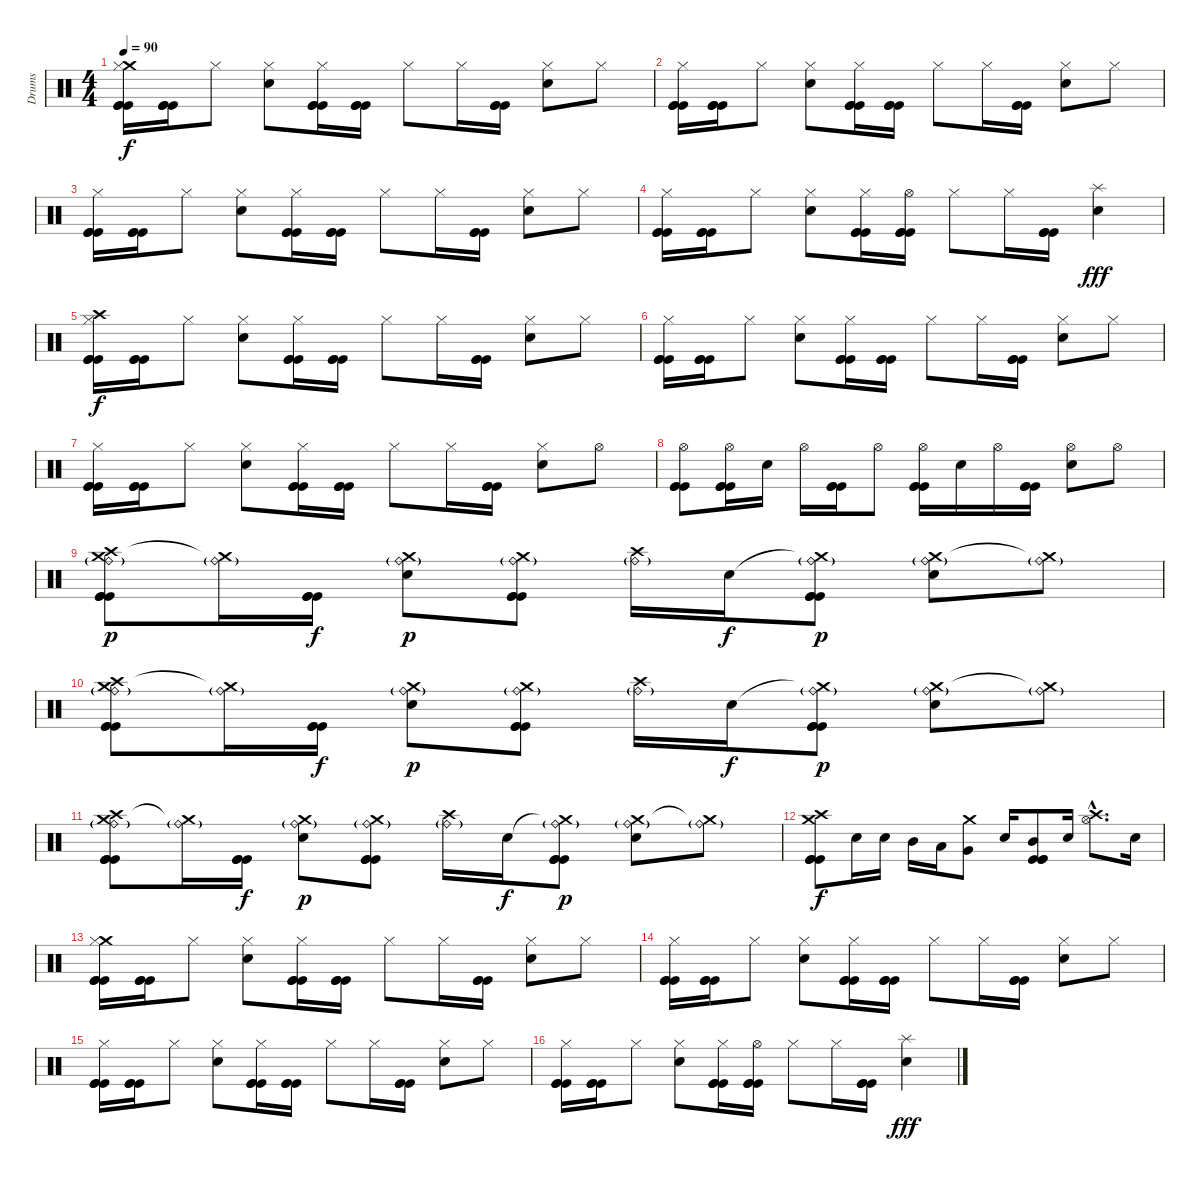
\track ("Drums" "Drums") {instrument percussion}
\staff {score}
\articulation defaults
\ts (4 4)
\tempo 90
\clef neutral
\ks c
("Crash medium (hit)" "Hi-Hat (closed)" "Kick (hit)" "Kick (hit)" "Kick (hit)").16{dy f} ("Kick (hit)" "Kick (hit)" "Kick (hit)").16 "Hi-Hat (closed)".8 ("Hi-Hat (closed)" "Electric Snare (hit)").8 ("Hi-Hat (closed)" "Kick (hit)" "Kick (hit)" "Kick (hit)").16 ("Kick (hit)" "Kick (hit)" "Kick (hit)").16 "Hi-Hat (closed)".8 "Hi-Hat (closed)".16 ("Kick (hit)" "Kick (hit)" "Kick (hit)").16 ("Hi-Hat (closed)" "Electric Snare (hit)").8 "Hi-Hat (closed)".8 |
("Hi-Hat (closed)" "Kick (hit)" "Kick (hit)" "Kick (hit)").16 ("Kick (hit)" "Kick (hit)" "Kick (hit)").16 "Hi-Hat (closed)".8 ("Hi-Hat (closed)" "Electric Snare (hit)").8 ("Hi-Hat (closed)" "Kick (hit)" "Kick (hit)" "Kick (hit)").16 ("Kick (hit)" "Kick (hit)" "Kick (hit)").16 "Hi-Hat (closed)".8 "Hi-Hat (closed)".16 ("Kick (hit)" "Kick (hit)" "Kick (hit)").16 ("Hi-Hat (closed)" "Electric Snare (hit)").8 "Hi-Hat (closed)".8 |
("Hi-Hat (closed)" "Kick (hit)" "Kick (hit)" "Kick (hit)").16 ("Kick (hit)" "Kick (hit)" "Kick (hit)").16 "Hi-Hat (closed)".8 ("Hi-Hat (closed)" "Electric Snare (hit)").8 ("Hi-Hat (closed)" "Kick (hit)" "Kick (hit)" "Kick (hit)").16 ("Kick (hit)" "Kick (hit)" "Kick (hit)").16 "Hi-Hat (closed)".8 "Hi-Hat (closed)".16 ("Kick (hit)" "Kick (hit)" "Kick (hit)").16 ("Hi-Hat (closed)" "Electric Snare (hit)").8 "Hi-Hat (closed)".8 |
("Hi-Hat (closed)" "Kick (hit)" "Kick (hit)" "Kick (hit)").16 ("Kick (hit)" "Kick (hit)" "Kick (hit)").16 "Hi-Hat (closed)".8 ("Hi-Hat (closed)" "Electric Snare (hit)").8 ("Hi-Hat (closed)" "Kick (hit)" "Kick (hit)" "Kick (hit)").16 ("Hi-Hat (open)" "Kick (hit)" "Kick (hit)" "Kick (hit)").16 "Hi-Hat (closed)".8 "Hi-Hat (closed)".16 ("Kick (hit)" "Kick (hit)" "Kick (hit)").16 ("Splash (hit)" "Electric Snare (hit)").4{dy fff} |
("Crash high (hit)" "Hi-Hat (closed)" "Kick (hit)" "Kick (hit)" "Kick (hit)").16{dy f} ("Kick (hit)" "Kick (hit)" "Kick (hit)").16 "Hi-Hat (closed)".8 ("Hi-Hat (closed)" "Electric Snare (hit)").8 ("Hi-Hat (closed)" "Kick (hit)" "Kick (hit)" "Kick (hit)").16 ("Kick (hit)" "Kick (hit)" "Kick (hit)").16 "Hi-Hat (closed)".8 "Hi-Hat (closed)".16 ("Kick (hit)" "Kick (hit)" "Kick (hit)").16 ("Hi-Hat (closed)" "Electric Snare (hit)").8 "Hi-Hat (closed)".8 |
("Hi-Hat (closed)" "Kick (hit)" "Kick (hit)" "Kick (hit)").16 ("Kick (hit)" "Kick (hit)" "Kick (hit)").16 "Hi-Hat (closed)".8 ("Hi-Hat (closed)" "Electric Snare (hit)").8 ("Hi-Hat (closed)" "Kick (hit)" "Kick (hit)" "Kick (hit)").16 ("Kick (hit)" "Kick (hit)" "Kick (hit)").16 "Hi-Hat (closed)".8 "Hi-Hat (closed)".16 ("Kick (hit)" "Kick (hit)" "Kick (hit)").16 ("Hi-Hat (closed)" "Electric Snare (hit)").8 "Hi-Hat (closed)".8 |
("Hi-Hat (closed)" "Kick (hit)" "Kick (hit)" "Kick (hit)").16 ("Kick (hit)" "Kick (hit)" "Kick (hit)").16 "Hi-Hat (closed)".8 ("Hi-Hat (closed)" "Electric Snare (hit)").8 ("Hi-Hat (closed)" "Kick (hit)" "Kick (hit)" "Kick (hit)").16 ("Kick (hit)" "Kick (hit)" "Kick (hit)").16 "Hi-Hat (closed)".8 "Hi-Hat (closed)".16 ("Kick (hit)" "Kick (hit)" "Kick (hit)").16 ("Hi-Hat (closed)" "Electric Snare (hit)").8 "Hi-Hat (open)".8 |
("Hi-Hat (open)" "Kick (hit)" "Kick (hit)" "Kick (hit)").8 ("Hi-Hat (open)" "Kick (hit)" "Kick (hit)" "Kick (hit)").16 "Electric Snare (hit)".16 "Hi-Hat (open)".16 ("Kick (hit)" "Kick (hit)" "Kick (hit)").16 "Hi-Hat (open)".8 ("Hi-Hat (open)" "Kick (hit)" "Kick (hit)" "Kick (hit)").16 "Electric Snare (hit)".16 "Hi-Hat (open)".16 ("Kick (hit)" "Kick (hit)" "Kick (hit)").16 ("Hi-Hat (open)" "Electric Snare (hit)").8 "Hi-Hat (open)".8 |
("Crash high (hit)" "Crash medium (hit)" "Ride (bell)"{g} "Kick (hit)" "Kick (hit)" "Kick (hit)").8{dy p} ("Crash medium (hit)"{t} "Ride (bell)"{g}).16 ("Kick (hit)" "Kick (hit)" "Kick (hit)").16{dy f} ("Crash medium (hit)" "Ride (bell)"{g} "Electric Snare (hit)").8{dy p} ("Crash medium (hit)" "Ride (bell)"{g} "Kick (hit)" "Kick (hit)" "Kick (hit)").8 ("Crash high (hit)" "Ride (bell)"{g}).16 "Electric Snare (hit)".16{dy f} ("Crash medium (hit)"{t} "Ride (bell)"{g} "Kick (hit)" "Kick (hit)" "Kick (hit)").8{dy p} ("Crash medium (hit)" "Ride (bell)"{g} "Electric Snare (hit)").8 ("Crash medium (hit)"{t} "Ride (bell)"{g}).8 |
("Crash high (hit)" "Crash medium (hit)" "Ride (bell)"{g} "Kick (hit)" "Kick (hit)" "Kick (hit)").8 ("Crash medium (hit)"{t} "Ride (bell)"{g}).16 ("Kick (hit)" "Kick (hit)" "Kick (hit)").16{dy f} ("Crash medium (hit)" "Ride (bell)"{g} "Electric Snare (hit)").8{dy p} ("Crash medium (hit)" "Ride (bell)"{g} "Kick (hit)" "Kick (hit)" "Kick (hit)").8 ("Crash high (hit)" "Ride (bell)"{g}).16 "Electric Snare (hit)".16{dy f} ("Crash medium (hit)"{t} "Ride (bell)"{g} "Kick (hit)" "Kick (hit)" "Kick (hit)").8{dy p} ("Crash medium (hit)" "Ride (bell)"{g} "Electric Snare (hit)").8 ("Crash medium (hit)"{t} "Ride (bell)"{g}).8 |
("Crash high (hit)" "Crash medium (hit)" "Ride (bell)"{g} "Kick (hit)" "Kick (hit)" "Kick (hit)").8 ("Crash medium (hit)"{t} "Ride (bell)"{g}).16 ("Kick (hit)" "Kick (hit)" "Kick (hit)").16{dy f} ("Crash medium (hit)" "Ride (bell)"{g} "Electric Snare (hit)").8{dy p} ("Crash medium (hit)" "Ride (bell)"{g} "Kick (hit)" "Kick (hit)" "Kick (hit)").8 ("Crash high (hit)" "Ride (bell)"{g}).16 "Electric Snare (hit)".16{dy f} ("Crash medium (hit)"{t} "Ride (bell)"{g} "Kick (hit)" "Kick (hit)" "Kick (hit)").8{dy p} ("Crash medium (hit)" "Ride (bell)"{g} "Electric Snare (hit)").8 ("Crash medium (hit)"{t} "Ride (bell)"{g}).8 |
("Crash medium (hit)" "Crash high (hit)" "Kick (hit)" "Kick (hit)" "Kick (hit)").8{dy f} "Electric Snare (hit)".16 "Electric Snare (hit)".16 "Mid Tom (hit)".16 "Low Tom (hit)".16 ("Crash medium (hit)" "Very Low Tom (hit)").8 "Electric Snare (hit)".16 ("Mid Tom (hit)" "Kick (hit)" "Kick (hit)" "Kick (hit)").8 "Electric Snare (hit)".16 ("Crash high (hit)"{hac} "Hi-Hat (open)"{hac}).8{d} "Electric Snare (hit)".16 |
("Crash medium (hit)" "Hi-Hat (closed)" "Kick (hit)" "Kick (hit)" "Kick (hit)").16 ("Kick (hit)" "Kick (hit)" "Kick (hit)").16 "Hi-Hat (closed)".8 ("Hi-Hat (closed)" "Electric Snare (hit)").8 ("Hi-Hat (closed)" "Kick (hit)" "Kick (hit)" "Kick (hit)").16 ("Kick (hit)" "Kick (hit)" "Kick (hit)").16 "Hi-Hat (closed)".8 "Hi-Hat (closed)".16 ("Kick (hit)" "Kick (hit)" "Kick (hit)").16 ("Hi-Hat (closed)" "Electric Snare (hit)").8 "Hi-Hat (closed)".8 |
("Hi-Hat (closed)" "Kick (hit)" "Kick (hit)" "Kick (hit)").16 ("Kick (hit)" "Kick (hit)" "Kick (hit)").16 "Hi-Hat (closed)".8 ("Hi-Hat (closed)" "Electric Snare (hit)").8 ("Hi-Hat (closed)" "Kick (hit)" "Kick (hit)" "Kick (hit)").16 ("Kick (hit)" "Kick (hit)" "Kick (hit)").16 "Hi-Hat (closed)".8 "Hi-Hat (closed)".16 ("Kick (hit)" "Kick (hit)" "Kick (hit)").16 ("Hi-Hat (closed)" "Electric Snare (hit)").8 "Hi-Hat (closed)".8 |
("Hi-Hat (closed)" "Kick (hit)" "Kick (hit)" "Kick (hit)").16 ("Kick (hit)" "Kick (hit)" "Kick (hit)").16 "Hi-Hat (closed)".8 ("Hi-Hat (closed)" "Electric Snare (hit)").8 ("Hi-Hat (closed)" "Kick (hit)" "Kick (hit)" "Kick (hit)").16 ("Kick (hit)" "Kick (hit)" "Kick (hit)").16 "Hi-Hat (closed)".8 "Hi-Hat (closed)".16 ("Kick (hit)" "Kick (hit)" "Kick (hit)").16 ("Hi-Hat (closed)" "Electric Snare (hit)").8 "Hi-Hat (closed)".8 |
("Hi-Hat (closed)" "Kick (hit)" "Kick (hit)" "Kick (hit)").16 ("Kick (hit)" "Kick (hit)" "Kick (hit)").16 "Hi-Hat (closed)".8 ("Hi-Hat (closed)" "Electric Snare (hit)").8 ("Hi-Hat (closed)" "Kick (hit)" "Kick (hit)" "Kick (hit)").16 ("Hi-Hat (open)" "Kick (hit)" "Kick (hit)" "Kick (hit)").16 "Hi-Hat (closed)".8 "Hi-Hat (closed)".16 ("Kick (hit)" "Kick (hit)" "Kick (hit)").16 ("Splash (hit)" "Electric Snare (hit)").4{dy fff}
